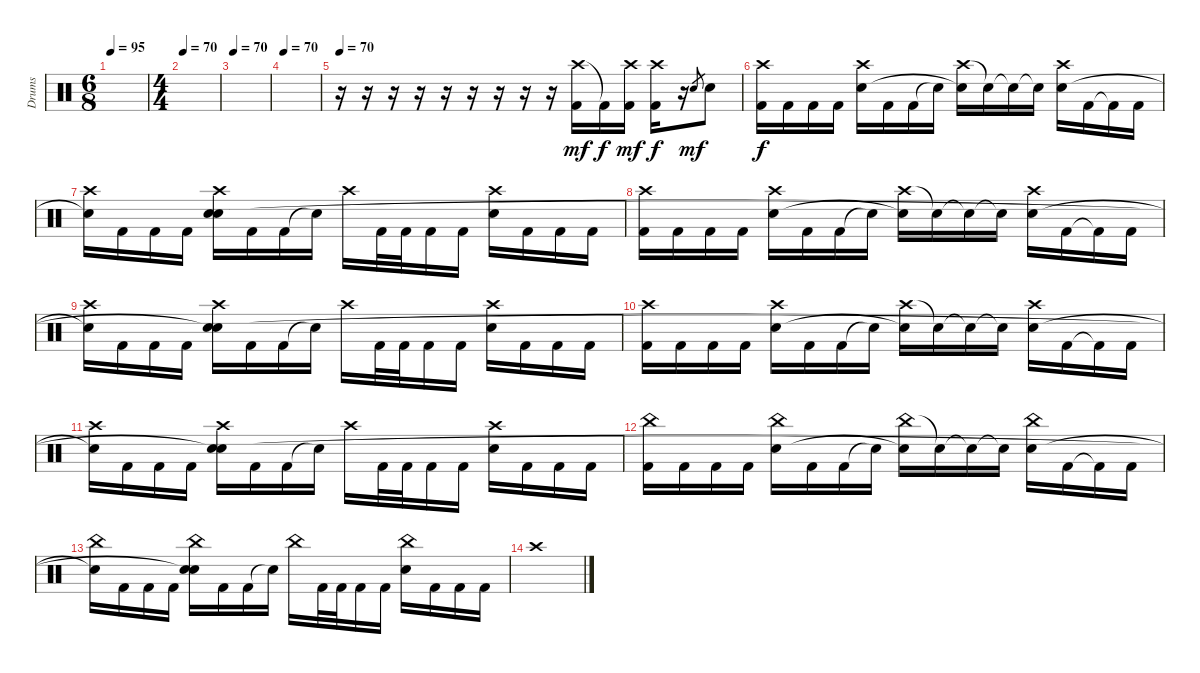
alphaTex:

\track ("Drums" "Drums") {instrument percussion}
\staff {score}
\articulation defaults
\ts (6 8)
\tempo 95
\clef neutral
\ks c
|
\ts (4 4)
\tempo 70
|
\tempo 70
|
\tempo 70
|
\tempo 70
r.16 r.16 r.16 r.16 r.16 r.16 r.16 r.16 r.16 ("Crash high (hit)" "Kick (hit) 2").16{dy mf} "Kick (hit) 2"{t}.16{dy f} ("Crash high (hit)" "Kick (hit) 2").16{dy mf} ("Crash high (hit)" "Kick (hit) 2").16{dy f} r.16 "Electric Snare (hit)".8{gr dy mf} "Electric Snare (hit)".8 |
("Crash high (hit)" "Kick (hit) 2").16{dy f} "Kick (hit) 2".16 "Kick (hit) 2".16 "Kick (hit) 2".16 ("Crash high (hit)" "Electric Snare (hit)").16 "Kick (hit) 2".16 "Kick (hit) 2".16 "Snare (hit)"{t}.16 ("Crash high (hit)" "Snare (hit)"{t}).16 "Snare (hit)"{t}.16 "Snare (hit)"{t}.16 "Snare (hit)"{t}.16 ("Crash high (hit)" "Electric Snare (hit)").16 "Kick (hit) 2".16 "Kick (hit) 2"{t}.16 "Kick (hit) 2".16 |
("Crash high (hit)" "Snare (hit)"{t}).16 "Kick (hit) 2".16 "Kick (hit) 2".16 "Kick (hit) 2".16 ("Crash high (hit)" "Electric Snare (hit)" "Snare (hit)").16 "Kick (hit) 2".16 "Kick (hit) 2".16 "Snare (hit)"{t}.16 "Crash high (hit)".16 "Kick (hit) 2".32 "Kick (hit) 2".32 "Kick (hit) 2".16 "Kick (hit) 2".16 ("Crash high (hit)" "Electric Snare (hit)").16 "Kick (hit) 2".16 "Kick (hit) 2".16 "Kick (hit) 2".16 |
("Crash high (hit)" "Kick (hit) 2").16 "Kick (hit) 2".16 "Kick (hit) 2".16 "Kick (hit) 2".16 ("Crash high (hit)" "Electric Snare (hit)").16 "Kick (hit) 2".16 "Kick (hit) 2".16 "Snare (hit)"{t}.16 ("Crash high (hit)" "Snare (hit)"{t}).16 "Snare (hit)"{t}.16 "Snare (hit)"{t}.16 "Snare (hit)"{t}.16 ("Crash high (hit)" "Electric Snare (hit)").16 "Kick (hit) 2".16 "Kick (hit) 2"{t}.16 "Kick (hit) 2".16 |
("Crash high (hit)" "Snare (hit)"{t}).16 "Kick (hit) 2".16 "Kick (hit) 2".16 "Kick (hit) 2".16 ("Crash high (hit)" "Electric Snare (hit)" "Snare (hit)"{t}).16 "Kick (hit) 2".16 "Kick (hit) 2".16 "Snare (hit)"{t}.16 "Crash high (hit)".16 "Kick (hit) 2".32 "Kick (hit) 2".32 "Kick (hit) 2".16 "Kick (hit) 2".16 ("Crash high (hit)" "Electric Snare (hit)").16 "Kick (hit) 2".16 "Kick (hit) 2".16 "Kick (hit) 2".16 |
("Crash high (hit)" "Kick (hit) 2").16 "Kick (hit) 2".16 "Kick (hit) 2".16 "Kick (hit) 2".16 ("Crash high (hit)" "Electric Snare (hit)").16 "Kick (hit) 2".16 "Kick (hit) 2".16 "Snare (hit)"{t}.16 ("Crash high (hit)" "Snare (hit)"{t}).16 "Snare (hit)"{t}.16 "Snare (hit)"{t}.16 "Snare (hit)"{t}.16 ("Crash high (hit)" "Electric Snare (hit)").16 "Kick (hit) 2".16 "Kick (hit) 2"{t}.16 "Kick (hit) 2".16 |
("Crash high (hit)" "Snare (hit)"{t}).16 "Kick (hit) 2".16 "Kick (hit) 2".16 "Kick (hit) 2".16 ("Crash high (hit)" "Electric Snare (hit)" "Snare (hit)"{t}).16 "Kick (hit) 2".16 "Kick (hit) 2".16 "Snare (hit)"{t}.16 "Crash high (hit)".16 "Kick (hit) 2".32 "Kick (hit) 2".32 "Kick (hit) 2".16 "Kick (hit) 2".16 ("Crash high (hit)" "Electric Snare (hit)").16 "Kick (hit) 2".16 "Kick (hit) 2".16 "Kick (hit) 2".16 |
("China (hit)" "Kick (hit) 2").16 "Kick (hit) 2".16 "Kick (hit) 2".16 "Kick (hit) 2".16 ("China (hit)" "Electric Snare (hit)").16 "Kick (hit) 2".16 "Kick (hit) 2".16 "Snare (hit)"{t}.16 ("China (hit)" "Snare (hit)"{t}).16 "Snare (hit)"{t}.16 "Snare (hit)"{t}.16 "Snare (hit)"{t}.16 ("China (hit)" "Electric Snare (hit)").16 "Kick (hit) 2".16 "Kick (hit) 2"{t}.16 "Kick (hit) 2".16 |
("China (hit)" "Snare (hit)"{t}).16 "Kick (hit) 2".16 "Kick (hit) 2".16 "Kick (hit) 2".16 ("China (hit)" "Electric Snare (hit)" "Snare (hit)"{t}).16 "Kick (hit) 2".16 "Kick (hit) 2".16 "Snare (hit)"{t}.16 "China (hit)".16 "Kick (hit) 2".32 "Kick (hit) 2".32 "Kick (hit) 2".16 "Kick (hit) 2".16 ("China (hit)" "Electric Snare (hit)").16 "Kick (hit) 2".16 "Kick (hit) 2".16 "Kick (hit) 2".16 |
"Crash high (hit)".1
